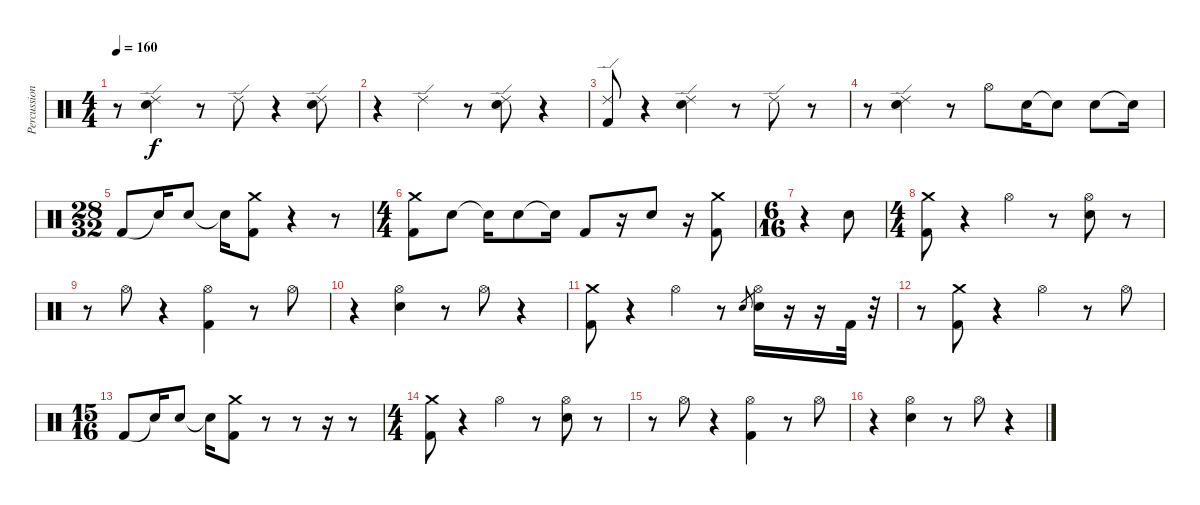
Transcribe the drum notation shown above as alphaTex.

\track ("Percussion" "Percussion") {instrument percussion}
\staff {score}
\articulation defaults
\ts (4 4)
\tempo 160
\clef neutral
\ks c
r.8{dy f} ("Ride (edge) 2" "Electric Snare (hit)").4 r.8 "Ride (edge) 2".8 r.4 ("Ride (edge) 2" "Electric Snare (hit)").8 |
r.4 "Ride (edge) 2".4 r.8 ("Ride (edge) 2" "Electric Snare (hit)").8 r.4 |
("Ride (edge) 2" "Kick (hit) 2").8 r.4 ("Ride (edge) 2" "Electric Snare (hit)").4 r.8 "Ride (edge) 2".8 r.8 |
r.8 ("Ride (edge) 2" "Electric Snare (hit)").4 r.8 "Hi-Hat (open)".8 "Electric Snare (hit)".16 "Electric Snare (hit)"{t}.8 "Electric Snare (hit)".8 "Snare (hit)"{t}.16 |
\ts (28 32)
"Kick (hit) 2".8 "Snare (hit)"{t}.16 "Electric Snare (hit)".8 "Snare (hit)"{t}.16 ("Crash medium (hit)" "Kick (hit) 2").8 r.4 r.8 |
\ts (4 4)
("Crash medium (hit)" "Kick (hit) 2").8 "Electric Snare (hit)".8 "Electric Snare (hit)"{t}.16 "Electric Snare (hit)".8 "Snare (hit)"{t}.16 "Kick (hit) 2".8 r.16 "Electric Snare (hit)".8 r.16 ("Crash medium (hit)" "Kick (hit) 2").8 |
\ts (6 16)
r.4 "Snare (hit)".8 |
\ts (4 4)
("Crash medium (hit)" "Kick (hit) 2").8 r.4 "Hi-Hat (open)".4 r.8 ("Hi-Hat (open)" "Electric Snare (hit)").8 r.8 |
r.8 "Hi-Hat (open)".8 r.4 ("Hi-Hat (open)" "Kick (hit) 2").4 r.8 "Hi-Hat (open)".8 |
r.4 ("Hi-Hat (open)" "Electric Snare (hit)").4 r.8 "Hi-Hat (open)".8 r.4 |
("Crash medium (hit)" "Kick (hit) 2").8 r.4 "Hi-Hat (open)".4 r.8 "Electric Snare (hit)".8{gr} ("Hi-Hat (open)" "Electric Snare (hit)").16 r.16 r.16 "Kick (hit) 2".32 r.32 |
r.8 ("Crash medium (hit)" "Kick (hit) 2").8 r.4 "Hi-Hat (open)".4 r.8 "Hi-Hat (open)".8 |
\ts (15 16)
"Kick (hit) 2".8 "Snare (hit)"{t}.16 "Electric Snare (hit)".8 "Snare (hit)"{t}.16 ("Crash medium (hit)" "Kick (hit) 2").8 r.8 r.8 r.16 r.8 |
\ts (4 4)
("Crash medium (hit)" "Kick (hit) 2").8 r.4 "Hi-Hat (open)".4 r.8 ("Hi-Hat (open)" "Electric Snare (hit)").8 r.8 |
r.8 "Hi-Hat (open)".8 r.4 ("Hi-Hat (open)" "Kick (hit) 2").4 r.8 "Hi-Hat (open)".8 |
r.4 ("Hi-Hat (open)" "Electric Snare (hit)").4 r.8 "Hi-Hat (open)".8 r.4
